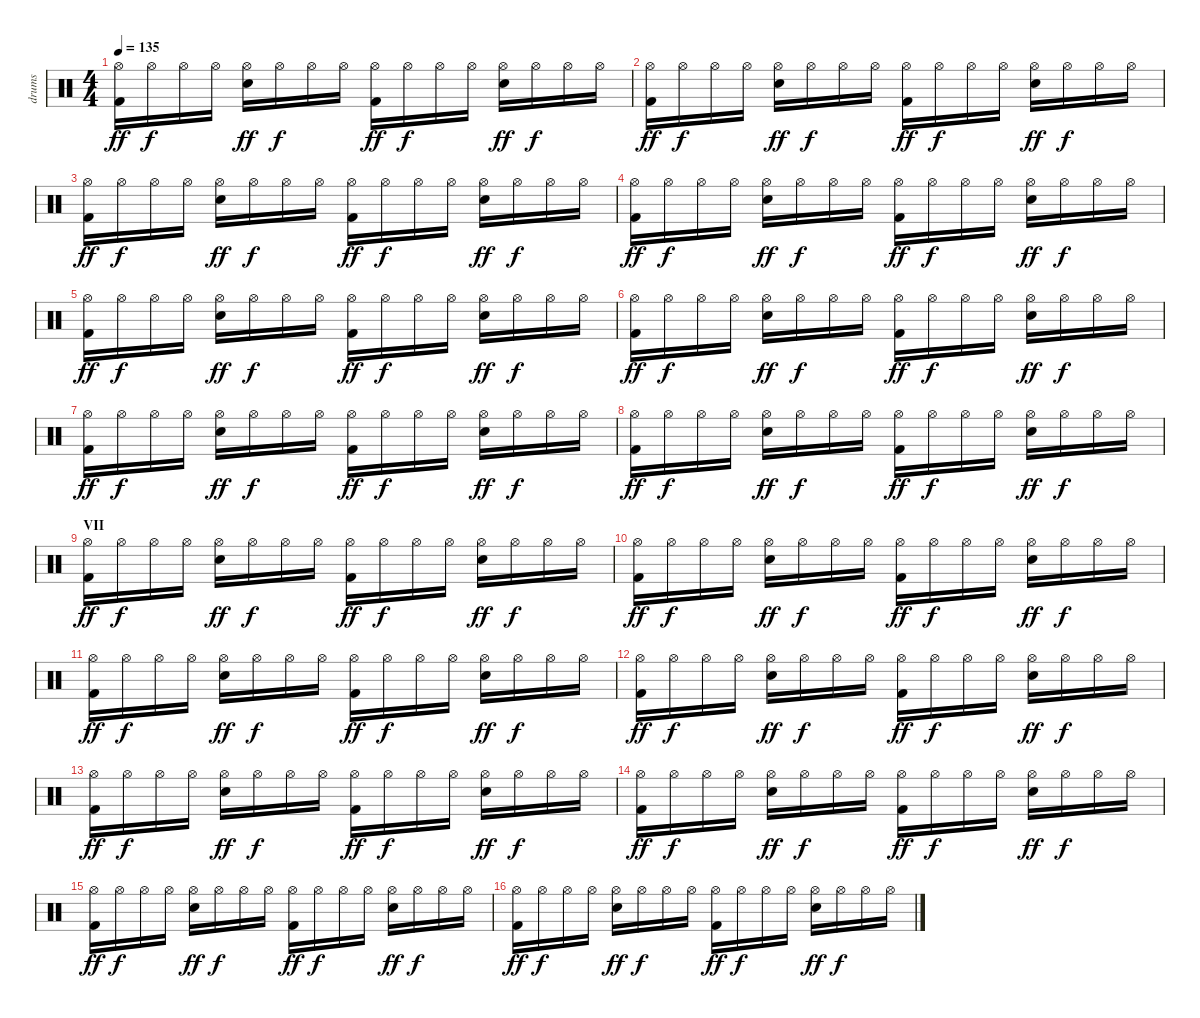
\track ("drums" "drums") {instrument percussion}
\staff {score}
\articulation defaults
\ts (4 4)
\tempo 135
\clef neutral
\ks c
("Hi-Hat (open)" "Kick (hit) 2").16{dy ff} "Hi-Hat (open)".16{dy f} "Hi-Hat (open)".16 "Hi-Hat (open)".16 ("Hi-Hat (open)" "Electric Snare (hit)").16{dy ff} "Hi-Hat (open)".16{dy f} "Hi-Hat (open)".16 "Hi-Hat (open)".16 ("Hi-Hat (open)" "Kick (hit) 2").16{dy ff} "Hi-Hat (open)".16{dy f} "Hi-Hat (open)".16 "Hi-Hat (open)".16 ("Hi-Hat (open)" "Electric Snare (hit)").16{dy ff} "Hi-Hat (open)".16{dy f} "Hi-Hat (open)".16 "Hi-Hat (open)".16 |
("Hi-Hat (open)" "Kick (hit) 2").16{dy ff} "Hi-Hat (open)".16{dy f} "Hi-Hat (open)".16 "Hi-Hat (open)".16 ("Hi-Hat (open)" "Electric Snare (hit)").16{dy ff} "Hi-Hat (open)".16{dy f} "Hi-Hat (open)".16 "Hi-Hat (open)".16 ("Hi-Hat (open)" "Kick (hit) 2").16{dy ff} "Hi-Hat (open)".16{dy f} "Hi-Hat (open)".16 "Hi-Hat (open)".16 ("Hi-Hat (open)" "Electric Snare (hit)").16{dy ff} "Hi-Hat (open)".16{dy f} "Hi-Hat (open)".16 "Hi-Hat (open)".16 |
("Hi-Hat (open)" "Kick (hit) 2").16{dy ff} "Hi-Hat (open)".16{dy f} "Hi-Hat (open)".16 "Hi-Hat (open)".16 ("Hi-Hat (open)" "Electric Snare (hit)").16{dy ff} "Hi-Hat (open)".16{dy f} "Hi-Hat (open)".16 "Hi-Hat (open)".16 ("Hi-Hat (open)" "Kick (hit) 2").16{dy ff} "Hi-Hat (open)".16{dy f} "Hi-Hat (open)".16 "Hi-Hat (open)".16 ("Hi-Hat (open)" "Electric Snare (hit)").16{dy ff} "Hi-Hat (open)".16{dy f} "Hi-Hat (open)".16 "Hi-Hat (open)".16 |
("Hi-Hat (open)" "Kick (hit) 2").16{dy ff} "Hi-Hat (open)".16{dy f} "Hi-Hat (open)".16 "Hi-Hat (open)".16 ("Hi-Hat (open)" "Electric Snare (hit)").16{dy ff} "Hi-Hat (open)".16{dy f} "Hi-Hat (open)".16 "Hi-Hat (open)".16 ("Hi-Hat (open)" "Kick (hit) 2").16{dy ff} "Hi-Hat (open)".16{dy f} "Hi-Hat (open)".16 "Hi-Hat (open)".16 ("Hi-Hat (open)" "Electric Snare (hit)").16{dy ff} "Hi-Hat (open)".16{dy f} "Hi-Hat (open)".16 "Hi-Hat (open)".16 |
("Hi-Hat (open)" "Kick (hit) 2").16{dy ff} "Hi-Hat (open)".16{dy f} "Hi-Hat (open)".16 "Hi-Hat (open)".16 ("Hi-Hat (open)" "Electric Snare (hit)").16{dy ff} "Hi-Hat (open)".16{dy f} "Hi-Hat (open)".16 "Hi-Hat (open)".16 ("Hi-Hat (open)" "Kick (hit) 2").16{dy ff} "Hi-Hat (open)".16{dy f} "Hi-Hat (open)".16 "Hi-Hat (open)".16 ("Hi-Hat (open)" "Electric Snare (hit)").16{dy ff} "Hi-Hat (open)".16{dy f} "Hi-Hat (open)".16 "Hi-Hat (open)".16 |
("Hi-Hat (open)" "Kick (hit) 2").16{dy ff} "Hi-Hat (open)".16{dy f} "Hi-Hat (open)".16 "Hi-Hat (open)".16 ("Hi-Hat (open)" "Electric Snare (hit)").16{dy ff} "Hi-Hat (open)".16{dy f} "Hi-Hat (open)".16 "Hi-Hat (open)".16 ("Hi-Hat (open)" "Kick (hit) 2").16{dy ff} "Hi-Hat (open)".16{dy f} "Hi-Hat (open)".16 "Hi-Hat (open)".16 ("Hi-Hat (open)" "Electric Snare (hit)").16{dy ff} "Hi-Hat (open)".16{dy f} "Hi-Hat (open)".16 "Hi-Hat (open)".16 |
("Hi-Hat (open)" "Kick (hit) 2").16{dy ff} "Hi-Hat (open)".16{dy f} "Hi-Hat (open)".16 "Hi-Hat (open)".16 ("Hi-Hat (open)" "Electric Snare (hit)").16{dy ff} "Hi-Hat (open)".16{dy f} "Hi-Hat (open)".16 "Hi-Hat (open)".16 ("Hi-Hat (open)" "Kick (hit) 2").16{dy ff} "Hi-Hat (open)".16{dy f} "Hi-Hat (open)".16 "Hi-Hat (open)".16 ("Hi-Hat (open)" "Electric Snare (hit)").16{dy ff} "Hi-Hat (open)".16{dy f} "Hi-Hat (open)".16 "Hi-Hat (open)".16 |
("Hi-Hat (open)" "Kick (hit) 2").16{dy ff} "Hi-Hat (open)".16{dy f} "Hi-Hat (open)".16 "Hi-Hat (open)".16 ("Hi-Hat (open)" "Electric Snare (hit)").16{dy ff} "Hi-Hat (open)".16{dy f} "Hi-Hat (open)".16 "Hi-Hat (open)".16 ("Hi-Hat (open)" "Kick (hit) 2").16{dy ff} "Hi-Hat (open)".16{dy f} "Hi-Hat (open)".16 "Hi-Hat (open)".16 ("Hi-Hat (open)" "Electric Snare (hit)").16{dy ff} "Hi-Hat (open)".16{dy f} "Hi-Hat (open)".16 "Hi-Hat (open)".16 |
\section ("" "VII")
("Hi-Hat (open)" "Kick (hit) 2").16{dy ff} "Hi-Hat (open)".16{dy f} "Hi-Hat (open)".16 "Hi-Hat (open)".16 ("Hi-Hat (open)" "Electric Snare (hit)").16{dy ff} "Hi-Hat (open)".16{dy f} "Hi-Hat (open)".16 "Hi-Hat (open)".16 ("Hi-Hat (open)" "Kick (hit) 2").16{dy ff} "Hi-Hat (open)".16{dy f} "Hi-Hat (open)".16 "Hi-Hat (open)".16 ("Hi-Hat (open)" "Electric Snare (hit)").16{dy ff} "Hi-Hat (open)".16{dy f} "Hi-Hat (open)".16 "Hi-Hat (open)".16 |
("Hi-Hat (open)" "Kick (hit) 2").16{dy ff} "Hi-Hat (open)".16{dy f} "Hi-Hat (open)".16 "Hi-Hat (open)".16 ("Hi-Hat (open)" "Electric Snare (hit)").16{dy ff} "Hi-Hat (open)".16{dy f} "Hi-Hat (open)".16 "Hi-Hat (open)".16 ("Hi-Hat (open)" "Kick (hit) 2").16{dy ff} "Hi-Hat (open)".16{dy f} "Hi-Hat (open)".16 "Hi-Hat (open)".16 ("Hi-Hat (open)" "Electric Snare (hit)").16{dy ff} "Hi-Hat (open)".16{dy f} "Hi-Hat (open)".16 "Hi-Hat (open)".16 |
("Hi-Hat (open)" "Kick (hit) 2").16{dy ff} "Hi-Hat (open)".16{dy f} "Hi-Hat (open)".16 "Hi-Hat (open)".16 ("Hi-Hat (open)" "Electric Snare (hit)").16{dy ff} "Hi-Hat (open)".16{dy f} "Hi-Hat (open)".16 "Hi-Hat (open)".16 ("Hi-Hat (open)" "Kick (hit) 2").16{dy ff} "Hi-Hat (open)".16{dy f} "Hi-Hat (open)".16 "Hi-Hat (open)".16 ("Hi-Hat (open)" "Electric Snare (hit)").16{dy ff} "Hi-Hat (open)".16{dy f} "Hi-Hat (open)".16 "Hi-Hat (open)".16 |
("Hi-Hat (open)" "Kick (hit) 2").16{dy ff} "Hi-Hat (open)".16{dy f} "Hi-Hat (open)".16 "Hi-Hat (open)".16 ("Hi-Hat (open)" "Electric Snare (hit)").16{dy ff} "Hi-Hat (open)".16{dy f} "Hi-Hat (open)".16 "Hi-Hat (open)".16 ("Hi-Hat (open)" "Kick (hit) 2").16{dy ff} "Hi-Hat (open)".16{dy f} "Hi-Hat (open)".16 "Hi-Hat (open)".16 ("Hi-Hat (open)" "Electric Snare (hit)").16{dy ff} "Hi-Hat (open)".16{dy f} "Hi-Hat (open)".16 "Hi-Hat (open)".16 |
("Hi-Hat (open)" "Kick (hit) 2").16{dy ff} "Hi-Hat (open)".16{dy f} "Hi-Hat (open)".16 "Hi-Hat (open)".16 ("Hi-Hat (open)" "Electric Snare (hit)").16{dy ff} "Hi-Hat (open)".16{dy f} "Hi-Hat (open)".16 "Hi-Hat (open)".16 ("Hi-Hat (open)" "Kick (hit) 2").16{dy ff} "Hi-Hat (open)".16{dy f} "Hi-Hat (open)".16 "Hi-Hat (open)".16 ("Hi-Hat (open)" "Electric Snare (hit)").16{dy ff} "Hi-Hat (open)".16{dy f} "Hi-Hat (open)".16 "Hi-Hat (open)".16 |
("Hi-Hat (open)" "Kick (hit) 2").16{dy ff} "Hi-Hat (open)".16{dy f} "Hi-Hat (open)".16 "Hi-Hat (open)".16 ("Hi-Hat (open)" "Electric Snare (hit)").16{dy ff} "Hi-Hat (open)".16{dy f} "Hi-Hat (open)".16 "Hi-Hat (open)".16 ("Hi-Hat (open)" "Kick (hit) 2").16{dy ff} "Hi-Hat (open)".16{dy f} "Hi-Hat (open)".16 "Hi-Hat (open)".16 ("Hi-Hat (open)" "Electric Snare (hit)").16{dy ff} "Hi-Hat (open)".16{dy f} "Hi-Hat (open)".16 "Hi-Hat (open)".16 |
("Hi-Hat (open)" "Kick (hit) 2").16{dy ff} "Hi-Hat (open)".16{dy f} "Hi-Hat (open)".16 "Hi-Hat (open)".16 ("Hi-Hat (open)" "Electric Snare (hit)").16{dy ff} "Hi-Hat (open)".16{dy f} "Hi-Hat (open)".16 "Hi-Hat (open)".16 ("Hi-Hat (open)" "Kick (hit) 2").16{dy ff} "Hi-Hat (open)".16{dy f} "Hi-Hat (open)".16 "Hi-Hat (open)".16 ("Hi-Hat (open)" "Electric Snare (hit)").16{dy ff} "Hi-Hat (open)".16{dy f} "Hi-Hat (open)".16 "Hi-Hat (open)".16 |
("Hi-Hat (open)" "Kick (hit) 2").16{dy ff} "Hi-Hat (open)".16{dy f} "Hi-Hat (open)".16 "Hi-Hat (open)".16 ("Hi-Hat (open)" "Electric Snare (hit)").16{dy ff} "Hi-Hat (open)".16{dy f} "Hi-Hat (open)".16 "Hi-Hat (open)".16 ("Hi-Hat (open)" "Kick (hit) 2").16{dy ff} "Hi-Hat (open)".16{dy f} "Hi-Hat (open)".16 "Hi-Hat (open)".16 ("Hi-Hat (open)" "Electric Snare (hit)").16{dy ff} "Hi-Hat (open)".16{dy f} "Hi-Hat (open)".16 "Hi-Hat (open)".16
